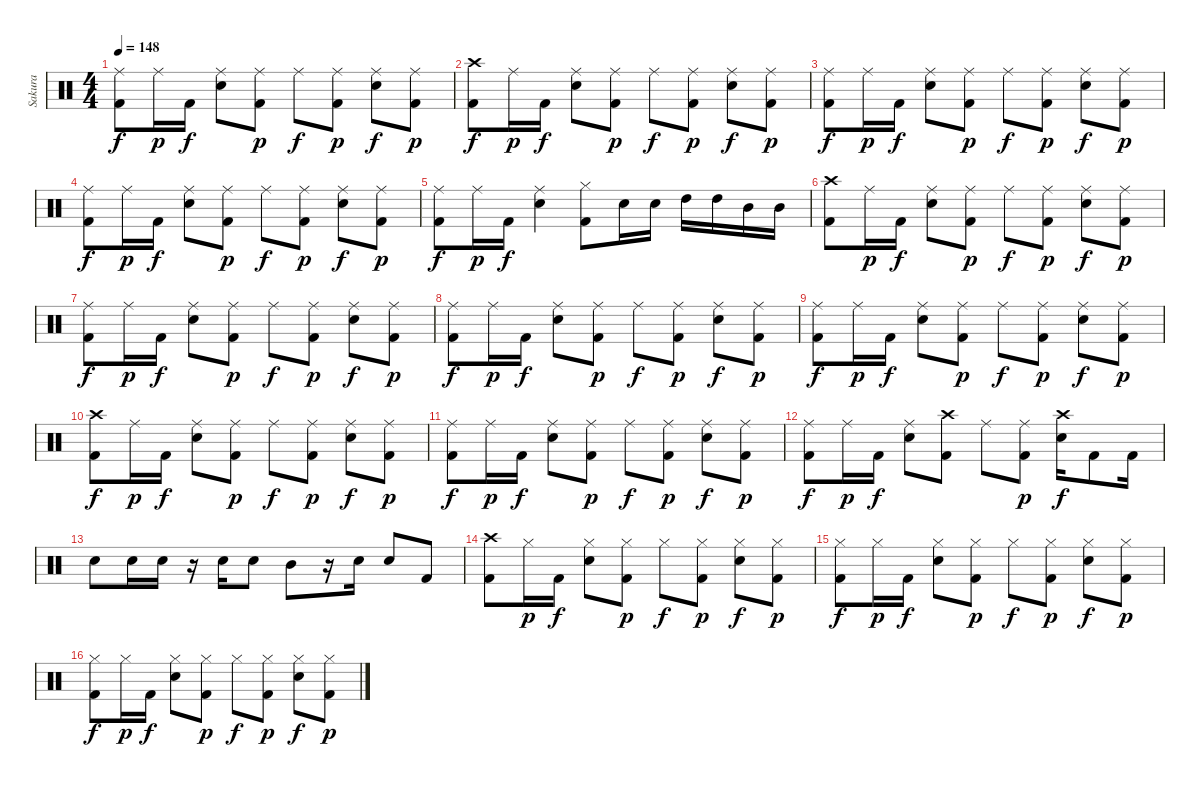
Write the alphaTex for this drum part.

\track ("Sakura" "Sakura") {instrument percussion}
\staff {score}
\articulation defaults
\ts (4 4)
\tempo 148
\clef neutral
\ks c
("Ride (middle)" "Kick (hit) 2").8{dy f} "Ride (middle)".16{dy p} "Kick (hit) 2".16{dy f} ("Ride (middle)" "Electric Snare (hit)").8 ("Ride (middle)" "Kick (hit) 2").8{dy p} "Ride (middle)".8{dy f} ("Ride (middle)" "Kick (hit) 2").8{dy p} ("Ride (middle)" "Electric Snare (hit)").8{dy f} ("Ride (middle)" "Kick (hit) 2").8{dy p} |
("Crash high (hit)" "Kick (hit) 2").8{dy f} "Ride (middle)".16{dy p} "Kick (hit) 2".16{dy f} ("Ride (middle)" "Electric Snare (hit)").8 ("Ride (middle)" "Kick (hit) 2").8{dy p} "Ride (middle)".8{dy f} ("Ride (middle)" "Kick (hit) 2").8{dy p} ("Ride (middle)" "Electric Snare (hit)").8{dy f} ("Ride (middle)" "Kick (hit) 2").8{dy p} |
("Ride (middle)" "Kick (hit) 2").8{dy f} "Ride (middle)".16{dy p} "Kick (hit) 2".16{dy f} ("Ride (middle)" "Electric Snare (hit)").8 ("Ride (middle)" "Kick (hit) 2").8{dy p} "Ride (middle)".8{dy f} ("Ride (middle)" "Kick (hit) 2").8{dy p} ("Ride (middle)" "Electric Snare (hit)").8{dy f} ("Ride (middle)" "Kick (hit) 2").8{dy p} |
("Ride (middle)" "Kick (hit) 2").8{dy f} "Ride (middle)".16{dy p} "Kick (hit) 2".16{dy f} ("Ride (middle)" "Electric Snare (hit)").8 ("Ride (middle)" "Kick (hit) 2").8{dy p} "Ride (middle)".8{dy f} ("Ride (middle)" "Kick (hit) 2").8{dy p} ("Ride (middle)" "Electric Snare (hit)").8{dy f} ("Ride (middle)" "Kick (hit) 2").8{dy p} |
("Ride (middle)" "Kick (hit) 2").8{dy f} "Ride (middle)".16{dy p} "Kick (hit) 2".16{dy f} ("Ride (middle)" "Electric Snare (hit)").4 ("Hi-Hat (closed)" "Kick (hit) 2").8 "Electric Snare (hit)".16 "Electric Snare (hit)".16 "High Tom (hit)".16 "High Tom (hit)".16 "Mid Tom (hit)".16 "Mid Tom (hit)".16 |
("Crash high (hit)" "Kick (hit) 2").8 "Ride (middle)".16{dy p} "Kick (hit) 2".16{dy f} ("Ride (middle)" "Electric Snare (hit)").8 ("Ride (middle)" "Kick (hit) 2").8{dy p} "Ride (middle)".8{dy f} ("Ride (middle)" "Kick (hit) 2").8{dy p} ("Ride (middle)" "Electric Snare (hit)").8{dy f} ("Ride (middle)" "Kick (hit) 2").8{dy p} |
("Ride (middle)" "Kick (hit) 2").8{dy f} "Ride (middle)".16{dy p} "Kick (hit) 2".16{dy f} ("Ride (middle)" "Electric Snare (hit)").8 ("Ride (middle)" "Kick (hit) 2").8{dy p} "Ride (middle)".8{dy f} ("Ride (middle)" "Kick (hit) 2").8{dy p} ("Ride (middle)" "Electric Snare (hit)").8{dy f} ("Ride (middle)" "Kick (hit) 2").8{dy p} |
("Ride (middle)" "Kick (hit) 2").8{dy f} "Ride (middle)".16{dy p} "Kick (hit) 2".16{dy f} ("Ride (middle)" "Electric Snare (hit)").8 ("Ride (middle)" "Kick (hit) 2").8{dy p} "Ride (middle)".8{dy f} ("Ride (middle)" "Kick (hit) 2").8{dy p} ("Ride (middle)" "Electric Snare (hit)").8{dy f} ("Ride (middle)" "Kick (hit) 2").8{dy p} |
("Ride (middle)" "Kick (hit) 2").8{dy f} "Ride (middle)".16{dy p} "Kick (hit) 2".16{dy f} ("Ride (middle)" "Electric Snare (hit)").8 ("Ride (middle)" "Kick (hit) 2").8{dy p} "Ride (middle)".8{dy f} ("Ride (middle)" "Kick (hit) 2").8{dy p} ("Ride (middle)" "Electric Snare (hit)").8{dy f} ("Ride (middle)" "Kick (hit) 2").8{dy p} |
("Crash high (hit)" "Kick (hit) 2").8{dy f} "Ride (middle)".16{dy p} "Kick (hit) 2".16{dy f} ("Ride (middle)" "Electric Snare (hit)").8 ("Ride (middle)" "Kick (hit) 2").8{dy p} "Ride (middle)".8{dy f} ("Ride (middle)" "Kick (hit) 2").8{dy p} ("Ride (middle)" "Electric Snare (hit)").8{dy f} ("Ride (middle)" "Kick (hit) 2").8{dy p} |
("Ride (middle)" "Kick (hit) 2").8{dy f} "Ride (middle)".16{dy p} "Kick (hit) 2".16{dy f} ("Ride (middle)" "Electric Snare (hit)").8 ("Ride (middle)" "Kick (hit) 2").8{dy p} "Ride (middle)".8{dy f} ("Ride (middle)" "Kick (hit) 2").8{dy p} ("Ride (middle)" "Electric Snare (hit)").8{dy f} ("Ride (middle)" "Kick (hit) 2").8{dy p} |
("Ride (middle)" "Kick (hit) 2").8{dy f} "Ride (middle)".16{dy p} "Kick (hit) 2".16{dy f} ("Ride (middle)" "Electric Snare (hit)").8 ("Crash high (hit)" "Kick (hit) 2").8 "Ride (middle)".8 ("Ride (middle)" "Kick (hit) 2").8{dy p} ("Crash high (hit)" "Electric Snare (hit)").16{dy f} "Kick (hit) 2".8 "Kick (hit) 2".16 |
"Electric Snare (hit)".8 "Electric Snare (hit)".16 "Electric Snare (hit)".16 r.16 "Electric Snare (hit)".16 "Electric Snare (hit)".8 "Mid Tom (hit)".8 r.16 "Electric Snare (hit)".16 "Electric Snare (hit)".8 "Kick (hit) 2".8 |
("Crash high (hit)" "Kick (hit) 2").8 "Hi-Hat (closed)".16{dy p} "Kick (hit) 2".16{dy f} ("Hi-Hat (closed)" "Electric Snare (hit)").8 ("Hi-Hat (closed)" "Kick (hit) 2").8{dy p} "Hi-Hat (closed)".8{dy f} ("Hi-Hat (closed)" "Kick (hit) 2").8{dy p} ("Hi-Hat (closed)" "Electric Snare (hit)").8{dy f} ("Hi-Hat (closed)" "Kick (hit) 2").8{dy p} |
("Hi-Hat (closed)" "Kick (hit) 2").8{dy f} "Hi-Hat (closed)".16{dy p} "Kick (hit) 2".16{dy f} ("Hi-Hat (closed)" "Electric Snare (hit)").8 ("Hi-Hat (closed)" "Kick (hit) 2").8{dy p} "Hi-Hat (closed)".8{dy f} ("Hi-Hat (closed)" "Kick (hit) 2").8{dy p} ("Hi-Hat (closed)" "Electric Snare (hit)").8{dy f} ("Hi-Hat (closed)" "Kick (hit) 2").8{dy p} |
("Hi-Hat (closed)" "Kick (hit) 2").8{dy f} "Hi-Hat (closed)".16{dy p} "Kick (hit) 2".16{dy f} ("Hi-Hat (closed)" "Electric Snare (hit)").8 ("Hi-Hat (closed)" "Kick (hit) 2").8{dy p} "Hi-Hat (closed)".8{dy f} ("Hi-Hat (closed)" "Kick (hit) 2").8{dy p} ("Hi-Hat (closed)" "Electric Snare (hit)").8{dy f} ("Hi-Hat (closed)" "Kick (hit) 2").8{dy p}
